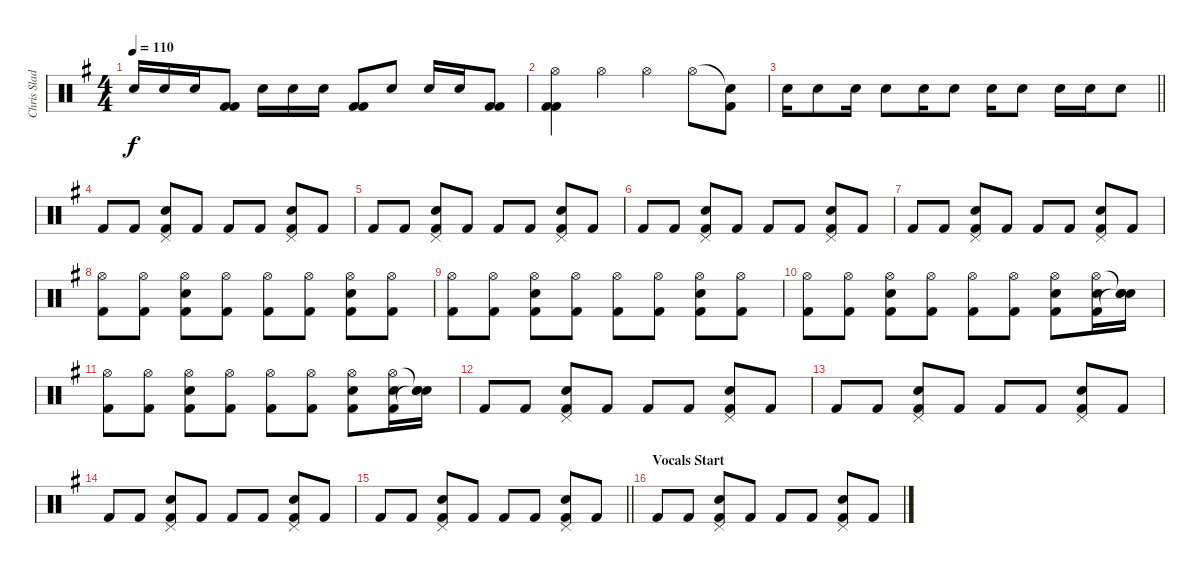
\track ("Chris Slade (Percussion)" "Chris Slad") {instrument percussion}
\staff {score}
\articulation defaults
\ts (4 4)
\tempo 110
\clef neutral
\ks g "Snare (hit) 2".16{dy f} "Snare (hit) 2".16 "Snare (hit) 2".16
("Kick (hit) 2" "Kick (hit) 2").8 "Snare (hit) 2".16 "Snare (hit) 2".16 "Snare (hit) 2".16 ("Kick (hit) 2" "Kick (hit) 2").8 "Snare (hit) 2".8 "Snare (hit) 2".16 "Snare (hit) 2".16 ("Kick (hit) 2" "Kick (hit) 2").8 |
("Hi-Hat (open)" "Kick (hit) 2" "Kick (hit) 2").4 "Hi-Hat (open)".4 "Hi-Hat (open)".4 "Hi-Hat (open)".8 ("Snare (hit)"{t} "Kick (hit) 2").8 |
\barLineRight lightlight "Snare (hit) 2".16 "Snare (hit) 2".8 "Snare (hit) 2".16 "Snare (hit) 2".8 "Snare (hit) 2".16 "Snare (hit) 2".8 "Snare (hit) 2".16 "Snare (hit) 2".8 "Snare (hit) 2".16 "Snare (hit) 2".16 "Snare (hit) 2".8
|
"Kick (hit) 2".8 "Kick (hit) 2".8 ("Pedal Hi-Hat (hit)" "Snare (hit) 2" "Kick (hit) 2").8 "Kick (hit) 2".8 "Kick (hit) 2".8 "Kick (hit) 2".8 ("Pedal Hi-Hat (hit)" "Snare (hit) 2" "Kick (hit) 2").8 "Kick (hit) 2".8 |
"Kick (hit) 2".8 "Kick (hit) 2".8 ("Pedal Hi-Hat (hit)" "Snare (hit) 2" "Kick (hit) 2").8 "Kick (hit) 2".8 "Kick (hit) 2".8 "Kick (hit) 2".8 ("Pedal Hi-Hat (hit)" "Snare (hit) 2" "Kick (hit) 2").8 "Kick (hit) 2".8 |
"Kick (hit) 2".8 "Kick (hit) 2".8 ("Pedal Hi-Hat (hit)" "Snare (hit) 2" "Kick (hit) 2").8 "Kick (hit) 2".8 "Kick (hit) 2".8 "Kick (hit) 2".8 ("Pedal Hi-Hat (hit)" "Snare (hit) 2" "Kick (hit) 2").8 "Kick (hit) 2".8 |
"Kick (hit) 2".8 "Kick (hit) 2".8 ("Pedal Hi-Hat (hit)" "Snare (hit) 2" "Kick (hit) 2").8 "Kick (hit) 2".8 "Kick (hit) 2".8 "Kick (hit) 2".8 ("Pedal Hi-Hat (hit)" "Snare (hit) 2" "Kick (hit) 2").8 "Kick (hit) 2".8 |
("Hi-Hat (open)" "Kick (hit) 2").8 ("Hi-Hat (open)" "Kick (hit) 2").8 ("Hi-Hat (open)" "Snare (hit) 2" "Kick (hit) 2").8 ("Hi-Hat (open)" "Kick (hit) 2").8 ("Hi-Hat (open)" "Kick (hit) 2").8 ("Hi-Hat (open)" "Kick (hit) 2").8 ("Hi-Hat (open)" "Snare (hit) 2" "Kick (hit) 2").8 ("Hi-Hat (open)" "Kick (hit) 2").8 |
("Hi-Hat (open)" "Kick (hit) 2").8 ("Hi-Hat (open)" "Kick (hit) 2").8 ("Hi-Hat (open)" "Snare (hit) 2" "Kick (hit) 2").8 ("Hi-Hat (open)" "Kick (hit) 2").8 ("Hi-Hat (open)" "Kick (hit) 2").8 ("Hi-Hat (open)" "Kick (hit) 2").8 ("Hi-Hat (open)" "Snare (hit) 2" "Kick (hit) 2").8 ("Hi-Hat (open)" "Kick (hit) 2").8 |
("Hi-Hat (open)" "Kick (hit) 2").8 ("Hi-Hat (open)" "Kick (hit) 2").8 ("Hi-Hat (open)" "Snare (hit) 2" "Kick (hit) 2").8 ("Hi-Hat (open)" "Kick (hit) 2").8 ("Hi-Hat (open)" "Kick (hit) 2").8 ("Hi-Hat (open)" "Kick (hit) 2").8 ("Hi-Hat (open)" "Snare (hit) 2" "Kick (hit) 2").8 ("Hi-Hat (open)" "Snare (hit) 2" "Kick (hit) 2").16 ("Snare (hit)"{t} "Snare (hit) 2" "Snare (hit)"{t}).16 |
("Hi-Hat (open)" "Kick (hit) 2").8 ("Hi-Hat (open)" "Kick (hit) 2").8 ("Hi-Hat (open)" "Snare (hit) 2" "Kick (hit) 2").8 ("Hi-Hat (open)" "Kick (hit) 2").8 ("Hi-Hat (open)" "Kick (hit) 2").8 ("Hi-Hat (open)" "Kick (hit) 2").8 ("Hi-Hat (open)" "Snare (hit) 2" "Kick (hit) 2").8 ("Hi-Hat (open)" "Snare (hit) 2" "Kick (hit) 2").16 ("Snare (hit)"{t} "Snare (hit) 2" "Snare (hit)"{t}).16 |
"Kick (hit) 2".8 "Kick (hit) 2".8 ("Pedal Hi-Hat (hit)" "Snare (hit) 2" "Kick (hit) 2").8 "Kick (hit) 2".8 "Kick (hit) 2".8 "Kick (hit) 2".8 ("Pedal Hi-Hat (hit)" "Snare (hit) 2" "Kick (hit) 2").8 "Kick (hit) 2".8 |
"Kick (hit) 2".8 "Kick (hit) 2".8 ("Pedal Hi-Hat (hit)" "Snare (hit) 2" "Kick (hit) 2").8 "Kick (hit) 2".8 "Kick (hit) 2".8 "Kick (hit) 2".8 ("Pedal Hi-Hat (hit)" "Snare (hit) 2" "Kick (hit) 2").8 "Kick (hit) 2".8 |
"Kick (hit) 2".8 "Kick (hit) 2".8 ("Pedal Hi-Hat (hit)" "Snare (hit) 2" "Kick (hit) 2").8 "Kick (hit) 2".8 "Kick (hit) 2".8 "Kick (hit) 2".8 ("Pedal Hi-Hat (hit)" "Snare (hit) 2" "Kick (hit) 2").8 "Kick (hit) 2".8 |
\barLineRight lightlight "Kick (hit) 2".8 "Kick (hit) 2".8
("Pedal Hi-Hat (hit)" "Snare (hit) 2" "Kick (hit) 2").8 "Kick (hit) 2".8 "Kick (hit) 2".8 "Kick (hit) 2".8 ("Pedal Hi-Hat (hit)" "Snare (hit) 2" "Kick (hit) 2").8 "Kick (hit) 2".8 |
\section ("" "Vocals Start")
"Kick (hit) 2".8 "Kick (hit) 2".8 ("Pedal Hi-Hat (hit)" "Snare (hit) 2" "Kick (hit) 2").8 "Kick (hit) 2".8 "Kick (hit) 2".8 "Kick (hit) 2".8 ("Pedal Hi-Hat (hit)" "Snare (hit) 2" "Kick (hit) 2").8 "Kick (hit) 2".8
